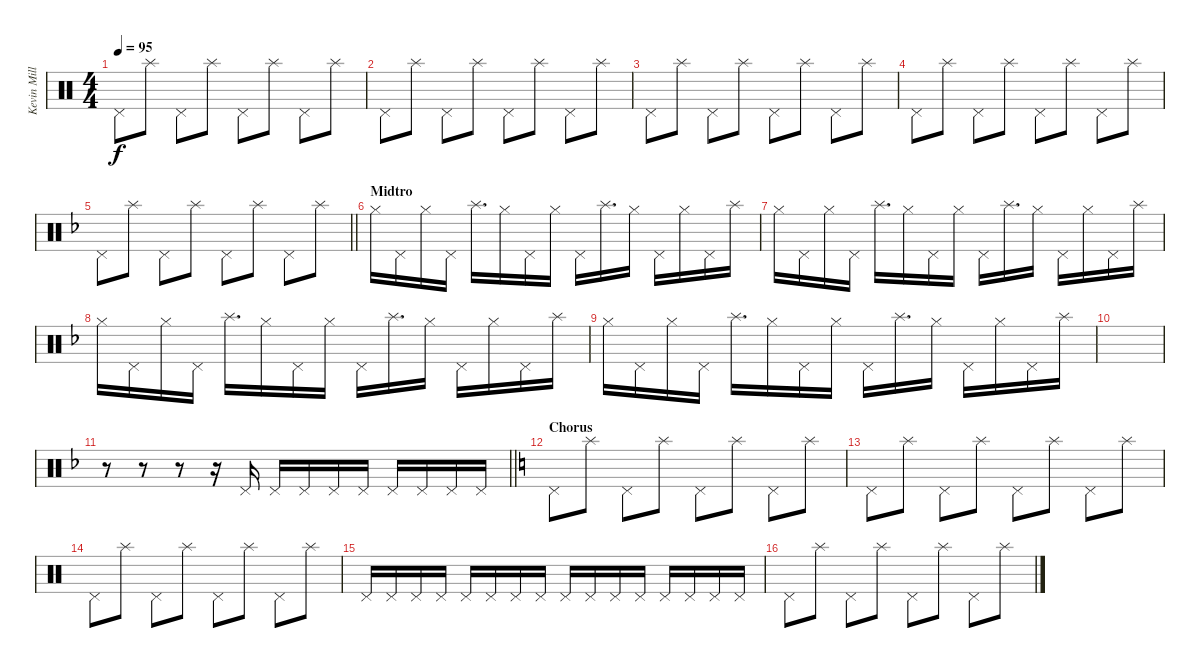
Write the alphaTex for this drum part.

\track ("Kevin Miller (Drums)" "Kevin Mill") {instrument percussion}
\staff {score}
\articulation defaults
\ts (4 4)
\tempo 95
\clef neutral
\ks c "Pedal Hi-Hat (hit)".8{dy f} "Splash (hit)".8 "Pedal Hi-Hat (hit)".8 "Splash (hit)".8 "Pedal Hi-Hat (hit)".8 "Splash (hit)".8 "Pedal Hi-Hat (hit)".8 "Splash (hit)".8
|
"Pedal Hi-Hat (hit)".8 "Splash (hit)".8 "Pedal Hi-Hat (hit)".8 "Splash (hit)".8 "Pedal Hi-Hat (hit)".8 "Splash (hit)".8 "Pedal Hi-Hat (hit)".8 "Splash (hit)".8 |
"Pedal Hi-Hat (hit)".8 "Splash (hit)".8 "Pedal Hi-Hat (hit)".8 "Splash (hit)".8 "Pedal Hi-Hat (hit)".8 "Splash (hit)".8 "Pedal Hi-Hat (hit)".8 "Splash (hit)".8 |
"Pedal Hi-Hat (hit)".8 "Splash (hit)".8 "Pedal Hi-Hat (hit)".8 "Splash (hit)".8 "Pedal Hi-Hat (hit)".8 "Splash (hit)".8 "Pedal Hi-Hat (hit)".8 "Splash (hit)".8 |
\barLineRight lightlight
\ks f "Pedal Hi-Hat (hit)".8 "Splash (hit)".8 "Pedal Hi-Hat (hit)".8 "Splash (hit)".8 "Pedal Hi-Hat (hit)".8 "Splash (hit)".8 "Pedal Hi-Hat (hit)".8 "Splash (hit)".8
|
\section ("" "Midtro")
"Hi-Hat (closed)".16 "Pedal Hi-Hat (hit)".16 "Hi-Hat (closed)".16 "Pedal Hi-Hat (hit)".16 "Splash (hit)".16{d} "Hi-Hat (closed)".16 "Pedal Hi-Hat (hit)".16 "Hi-Hat (closed)".16 "Pedal Hi-Hat (hit)".16 "Splash (hit)".16{d} "Hi-Hat (closed)".16 "Pedal Hi-Hat (hit)".16 "Hi-Hat (closed)".16 "Pedal Hi-Hat (hit)".16 "Splash (hit)".16 |
"Hi-Hat (closed)".16 "Pedal Hi-Hat (hit)".16 "Hi-Hat (closed)".16 "Pedal Hi-Hat (hit)".16 "Splash (hit)".16{d} "Hi-Hat (closed)".16 "Pedal Hi-Hat (hit)".16 "Hi-Hat (closed)".16 "Pedal Hi-Hat (hit)".16 "Splash (hit)".16{d} "Hi-Hat (closed)".16 "Pedal Hi-Hat (hit)".16 "Hi-Hat (closed)".16 "Pedal Hi-Hat (hit)".16 "Splash (hit)".16 |
"Hi-Hat (closed)".16 "Pedal Hi-Hat (hit)".16 "Hi-Hat (closed)".16 "Pedal Hi-Hat (hit)".16 "Splash (hit)".16{d} "Hi-Hat (closed)".16 "Pedal Hi-Hat (hit)".16 "Hi-Hat (closed)".16 "Pedal Hi-Hat (hit)".16 "Splash (hit)".16{d} "Hi-Hat (closed)".16 "Pedal Hi-Hat (hit)".16 "Hi-Hat (closed)".16 "Pedal Hi-Hat (hit)".16 "Splash (hit)".16 |
"Hi-Hat (closed)".16 "Pedal Hi-Hat (hit)".16 "Hi-Hat (closed)".16 "Pedal Hi-Hat (hit)".16 "Splash (hit)".16{d} "Hi-Hat (closed)".16 "Pedal Hi-Hat (hit)".16 "Hi-Hat (closed)".16 "Pedal Hi-Hat (hit)".16 "Splash (hit)".16{d} "Hi-Hat (closed)".16 "Pedal Hi-Hat (hit)".16 "Hi-Hat (closed)".16 "Pedal Hi-Hat (hit)".16 "Splash (hit)".16 |
|
\barLineRight lightlight
r.8 r.8 r.8 r.16 "Pedal Hi-Hat (hit)".16 "Pedal Hi-Hat (hit)".16 "Pedal Hi-Hat (hit)".16 "Pedal Hi-Hat (hit)".16 "Pedal Hi-Hat (hit)".16 "Pedal Hi-Hat (hit)".16 "Pedal Hi-Hat (hit)".16 "Pedal Hi-Hat (hit)".16 "Pedal Hi-Hat (hit)".16 |
\section ("" "Chorus")
\ks c "Pedal Hi-Hat (hit)".8 "Splash (hit)".8 "Pedal Hi-Hat (hit)".8 "Splash (hit)".8 "Pedal Hi-Hat (hit)".8 "Splash (hit)".8 "Pedal Hi-Hat (hit)".8 "Splash (hit)".8
|
"Pedal Hi-Hat (hit)".8 "Splash (hit)".8 "Pedal Hi-Hat (hit)".8 "Splash (hit)".8 "Pedal Hi-Hat (hit)".8 "Splash (hit)".8 "Pedal Hi-Hat (hit)".8 "Splash (hit)".8 |
"Pedal Hi-Hat (hit)".8 "Splash (hit)".8 "Pedal Hi-Hat (hit)".8 "Splash (hit)".8 "Pedal Hi-Hat (hit)".8 "Splash (hit)".8 "Pedal Hi-Hat (hit)".8 "Splash (hit)".8 |
"Pedal Hi-Hat (hit)".16 "Pedal Hi-Hat (hit)".16 "Pedal Hi-Hat (hit)".16 "Pedal Hi-Hat (hit)".16 "Pedal Hi-Hat (hit)".16 "Pedal Hi-Hat (hit)".16 "Pedal Hi-Hat (hit)".16 "Pedal Hi-Hat (hit)".16 "Pedal Hi-Hat (hit)".16 "Pedal Hi-Hat (hit)".16 "Pedal Hi-Hat (hit)".16 "Pedal Hi-Hat (hit)".16 "Pedal Hi-Hat (hit)".16 "Pedal Hi-Hat (hit)".16 "Pedal Hi-Hat (hit)".16 "Pedal Hi-Hat (hit)".16 |
"Pedal Hi-Hat (hit)".8 "Splash (hit)".8 "Pedal Hi-Hat (hit)".8 "Splash (hit)".8 "Pedal Hi-Hat (hit)".8 "Splash (hit)".8 "Pedal Hi-Hat (hit)".8 "Splash (hit)".8
